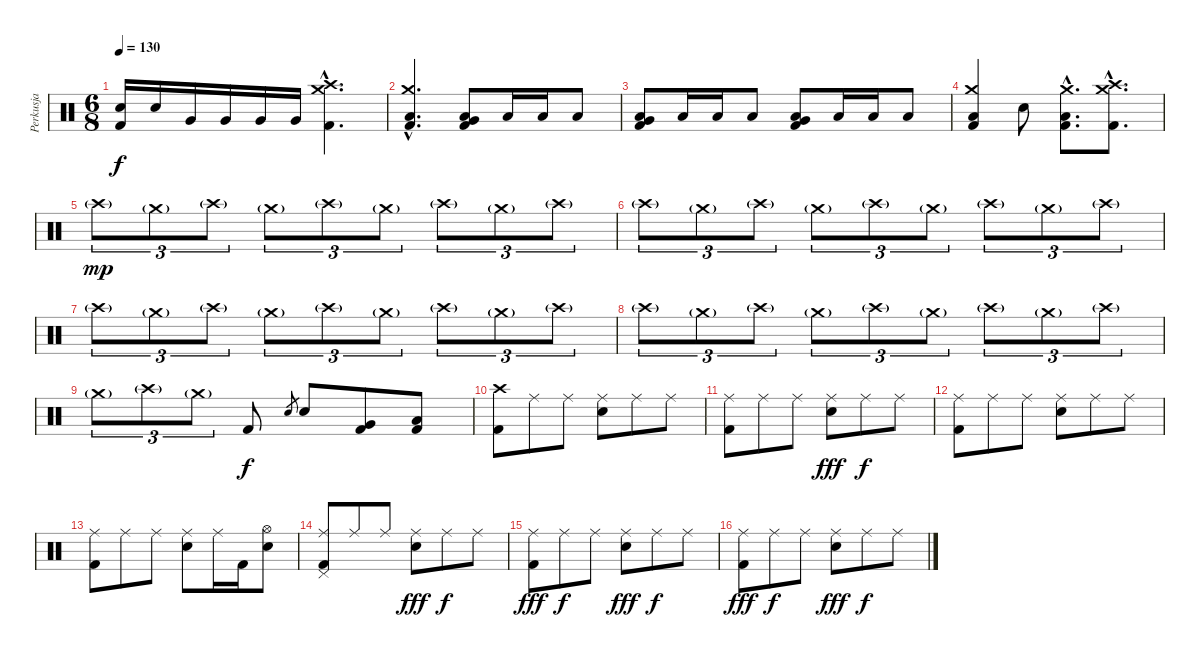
\track ("Perkusja" "Perkusja") {instrument percussion}
\staff {score}
\articulation defaults
\ts (6 8)
\tempo 130
\clef neutral
\ks c
("Electric Snare (hit)" "Kick (hit) 2").16{dy f} "Electric Snare (hit)".16 "Very Low Tom (hit)".16 "Very Low Tom (hit)".16 "Very Low Tom (hit)".16 "Very Low Tom (hit)".16 ("Crash high (hit)"{hac} "Crash medium (hit)"{hac} "Kick (hit) 2"{hac}).4{d} |
("Crash medium (hit)"{hac} "Low Floor Tom (hit)"{hac} "Kick (hit) 2"{hac}).4{d} ("Very Low Tom (hit)" "Low Floor Tom (hit)" "Kick (hit) 2").8 "Low Floor Tom (hit)".16 "Low Floor Tom (hit)".16 "Low Floor Tom (hit)".8 |
("Very Low Tom (hit)" "Low Floor Tom (hit)" "Kick (hit) 2").8 "Low Floor Tom (hit)".16 "Low Floor Tom (hit)".16 "Low Floor Tom (hit)".8 ("Very Low Tom (hit)" "Low Floor Tom (hit)" "Kick (hit) 2").8 "Low Floor Tom (hit)".16 "Low Floor Tom (hit)".16 "Low Floor Tom (hit)".8 |
("Crash medium (hit)" "Low Floor Tom (hit)" "Kick (hit) 2").4 "Electric Snare (hit)".8 ("Crash medium (hit)"{hac} "Low Floor Tom (hit)"{hac} "Kick (hit) 2"{hac}).8{d} ("Crash high (hit)"{hac} "Crash medium (hit)"{hac} "Kick (hit) 2"{hac}).8{d} |
"Crash high (hit)"{g}.8{tu (3 2) dy mp} "Crash medium (hit)"{g}.8{tu (3 2)} "Crash high (hit)"{g}.8{tu (3 2)} "Crash medium (hit)"{g}.8{tu (3 2)} "Crash high (hit)"{g}.8{tu (3 2)} "Crash medium (hit)"{g}.8{tu (3 2)} "Crash high (hit)"{g}.8{tu (3 2)} "Crash medium (hit)"{g}.8{tu (3 2)} "Crash high (hit)"{g}.8{tu (3 2)} |
"Crash high (hit)"{g}.8{tu (3 2)} "Crash medium (hit)"{g}.8{tu (3 2)} "Crash high (hit)"{g}.8{tu (3 2)} "Crash medium (hit)"{g}.8{tu (3 2)} "Crash high (hit)"{g}.8{tu (3 2)} "Crash medium (hit)"{g}.8{tu (3 2)} "Crash high (hit)"{g}.8{tu (3 2)} "Crash medium (hit)"{g}.8{tu (3 2)} "Crash high (hit)"{g}.8{tu (3 2)} |
"Crash high (hit)"{g}.8{tu (3 2)} "Crash medium (hit)"{g}.8{tu (3 2)} "Crash high (hit)"{g}.8{tu (3 2)} "Crash medium (hit)"{g}.8{tu (3 2)} "Crash high (hit)"{g}.8{tu (3 2)} "Crash medium (hit)"{g}.8{tu (3 2)} "Crash high (hit)"{g}.8{tu (3 2)} "Crash medium (hit)"{g}.8{tu (3 2)} "Crash high (hit)"{g}.8{tu (3 2)} |
"Crash high (hit)"{g}.8{tu (3 2)} "Crash medium (hit)"{g}.8{tu (3 2)} "Crash high (hit)"{g}.8{tu (3 2)} "Crash medium (hit)"{g}.8{tu (3 2)} "Crash high (hit)"{g}.8{tu (3 2)} "Crash medium (hit)"{g}.8{tu (3 2)} "Crash high (hit)"{g}.8{tu (3 2)} "Crash medium (hit)"{g}.8{tu (3 2)} "Crash high (hit)"{g}.8{tu (3 2)} |
"Crash medium (hit)"{g}.8{tu (3 2)} "Crash high (hit)"{g}.8{tu (3 2)} "Crash medium (hit)"{g}.8{tu (3 2)} "Kick (hit) 2".8{dy f} "Electric Snare (hit)".8{gr} "Electric Snare (hit)".8 ("Very Low Tom (hit)" "Kick (hit) 2").8 ("Low Floor Tom (hit)" "Kick (hit) 2").8 |
("Crash high (hit)" "Kick (hit) 2").8 "Ride (middle)".8 "Ride (middle)".8 ("Ride (middle)" "Electric Snare (hit)").8 "Ride (middle)".8 "Ride (middle)".8 |
("Ride (middle)" "Kick (hit) 2").8 "Ride (middle)".8 "Ride (middle)".8 ("Ride (middle)" "Electric Snare (hit)").8{dy fff} "Ride (middle)".8{dy f} "Ride (middle)".8 |
("Ride (middle)" "Kick (hit) 2").8 "Ride (middle)".8 "Ride (middle)".8 ("Ride (middle)" "Electric Snare (hit)").8 "Ride (middle)".8 "Ride (middle)".8 |
("Ride (middle)" "Kick (hit) 2").8 "Ride (middle)".8 "Ride (middle)".8 ("Ride (middle)" "Electric Snare (hit)").8 "Ride (middle)".16 "Kick (hit) 2".16 ("Hi-Hat (open)" "Electric Snare (hit)").8 |
("Ride (middle)" "Pedal Hi-Hat (hit)" "Kick (hit) 2").8 "Ride (middle)".8 "Ride (middle)".8 ("Ride (middle)" "Electric Snare (hit)").8{dy fff} "Ride (middle)".8{dy f} "Ride (middle)".8 |
("Ride (middle)" "Kick (hit) 2").8{dy fff} "Ride (middle)".8{dy f} "Ride (middle)".8 ("Ride (middle)" "Electric Snare (hit)").8{dy fff} "Ride (middle)".8{dy f} "Ride (middle)".8 |
("Ride (middle)" "Kick (hit) 2").8{dy fff} "Ride (middle)".8{dy f} "Ride (middle)".8 ("Ride (middle)" "Electric Snare (hit)").8{dy fff} "Ride (middle)".8{dy f} "Ride (middle)".8
